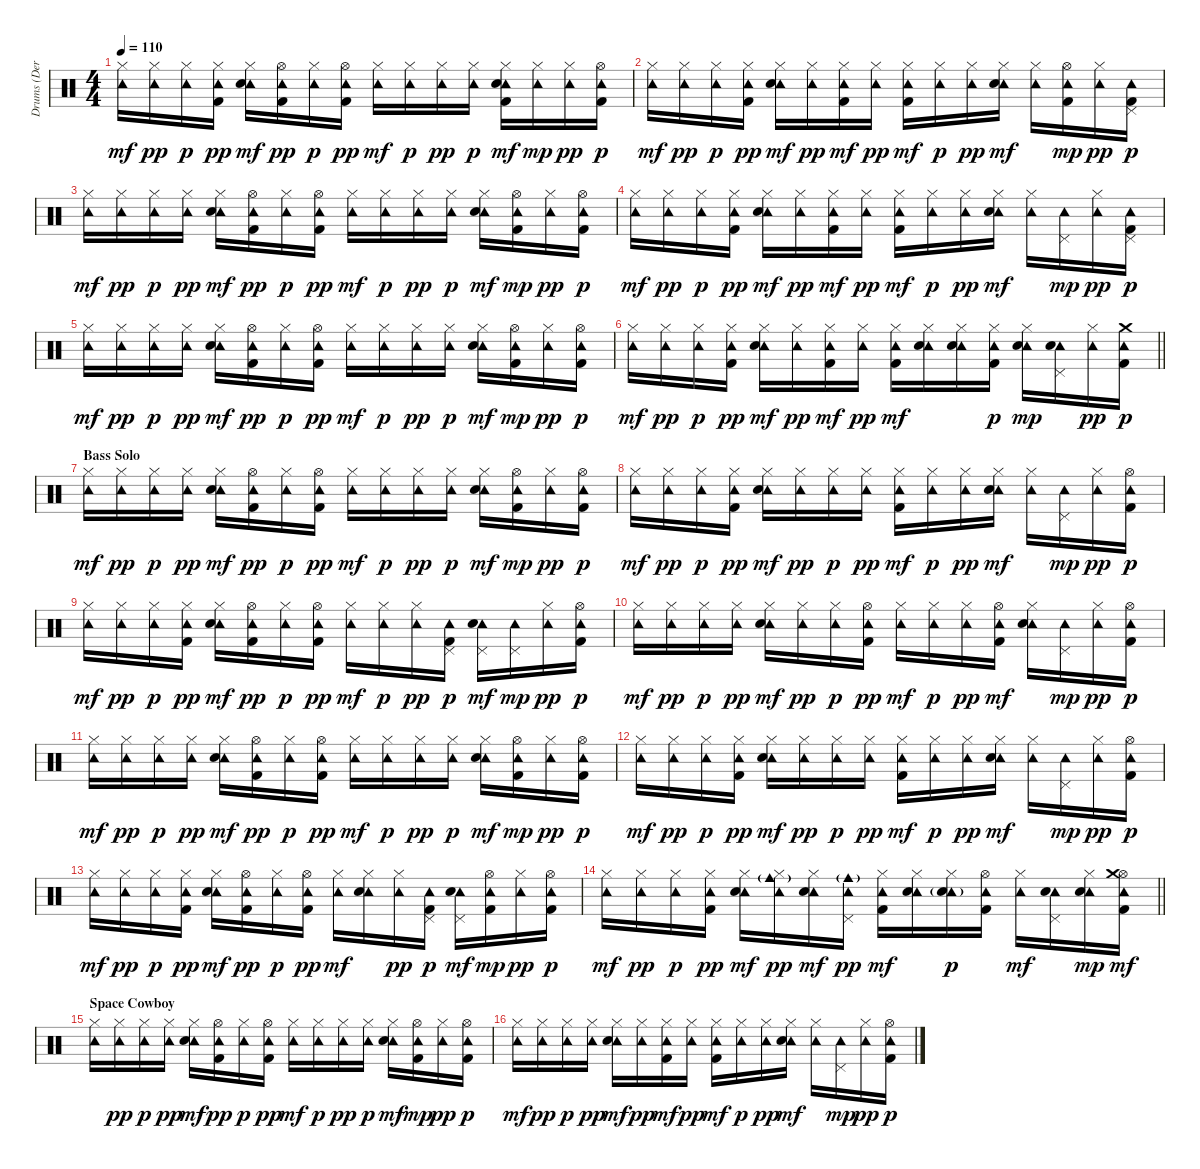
\track ("Drums (Derrick McKenzie)" "Drums (Der") {instrument percussion}
\staff {score}
\articulation defaults
\ts (4 4)
\tempo 110
\clef neutral
\ks c
("Hi-Hat (closed)" "Tambourine (hit)").16{dy mf} ("Hi-Hat (closed)" "Tambourine (hit)").16{dy pp} ("Hi-Hat (closed)" "Tambourine (hit)").16{dy p} ("Hi-Hat (closed)" "Tambourine (hit)" "Kick (hit) 2").16{dy pp} ("Hi-Hat (closed)" "Tambourine (hit)" "Electric Snare (hit)").16{dy mf} ("Hi-Hat (open)" "Tambourine (hit)" "Kick (hit) 2").16{dy pp} ("Hi-Hat (closed)" "Tambourine (hit)").16{dy p} ("Hi-Hat (open)" "Tambourine (hit)" "Kick (hit) 2").16{dy pp} ("Hi-Hat (closed)" "Tambourine (hit)").16{dy mf} ("Hi-Hat (closed)" "Tambourine (hit)").16{dy p} ("Hi-Hat (closed)" "Tambourine (hit)").16{dy pp} ("Hi-Hat (closed)" "Tambourine (hit)").16{dy p} ("Hi-Hat (closed)" "Tambourine (hit)" "Electric Snare (hit)" "Kick (hit) 2").16{dy mf} ("Hi-Hat (closed)" "Tambourine (hit)").16{dy mp} ("Hi-Hat (closed)" "Tambourine (hit)").16{dy pp} ("Hi-Hat (open)" "Tambourine (hit)" "Kick (hit) 2").16{dy p} |
("Hi-Hat (closed)" "Tambourine (hit)").16{dy mf} ("Hi-Hat (closed)" "Tambourine (hit)").16{dy pp} ("Hi-Hat (closed)" "Tambourine (hit)").16{dy p} ("Hi-Hat (closed)" "Tambourine (hit)" "Kick (hit) 2").16{dy pp} ("Hi-Hat (closed)" "Tambourine (hit)" "Electric Snare (hit)").16{dy mf} ("Hi-Hat (closed)" "Tambourine (hit)").16{dy pp} ("Hi-Hat (closed)" "Tambourine (hit)" "Kick (hit) 2").16{dy mf} ("Hi-Hat (closed)" "Tambourine (hit)").16{dy pp} ("Hi-Hat (closed)" "Tambourine (hit)" "Kick (hit) 2").16{dy mf} ("Hi-Hat (closed)" "Tambourine (hit)").16{dy p} ("Hi-Hat (closed)" "Tambourine (hit)").16{dy pp} ("Hi-Hat (closed)" "Tambourine (hit)" "Electric Snare (hit)").16{dy mf} ("Hi-Hat (closed)" "Tambourine (hit)").16 ("Hi-Hat (open)" "Tambourine (hit)" "Kick (hit) 2").16{dy mp} ("Hi-Hat (closed)" "Tambourine (hit)").16{dy pp} ("Pedal Hi-Hat (hit)" "Tambourine (hit)" "Kick (hit) 2").16{dy p} |
("Hi-Hat (closed)" "Tambourine (hit)").16{dy mf} ("Hi-Hat (closed)" "Tambourine (hit)").16{dy pp} ("Hi-Hat (closed)" "Tambourine (hit)").16{dy p} ("Hi-Hat (closed)" "Tambourine (hit)").16{dy pp} ("Hi-Hat (closed)" "Tambourine (hit)" "Electric Snare (hit)").16{dy mf} ("Hi-Hat (open)" "Tambourine (hit)" "Kick (hit) 2").16{dy pp} ("Hi-Hat (closed)" "Tambourine (hit)").16{dy p} ("Hi-Hat (open)" "Tambourine (hit)" "Kick (hit) 2").16{dy pp} ("Hi-Hat (closed)" "Tambourine (hit)").16{dy mf} ("Hi-Hat (closed)" "Tambourine (hit)").16{dy p} ("Hi-Hat (closed)" "Tambourine (hit)").16{dy pp} ("Hi-Hat (closed)" "Tambourine (hit)").16{dy p} ("Hi-Hat (closed)" "Tambourine (hit)" "Electric Snare (hit)").16{dy mf} ("Hi-Hat (open)" "Tambourine (hit)" "Kick (hit) 2").16{dy mp} ("Hi-Hat (closed)" "Tambourine (hit)").16{dy pp} ("Hi-Hat (open)" "Tambourine (hit)" "Kick (hit) 2").16{dy p} |
("Hi-Hat (closed)" "Tambourine (hit)").16{dy mf} ("Hi-Hat (closed)" "Tambourine (hit)").16{dy pp} ("Hi-Hat (closed)" "Tambourine (hit)").16{dy p} ("Hi-Hat (closed)" "Tambourine (hit)" "Kick (hit) 2").16{dy pp} ("Hi-Hat (closed)" "Tambourine (hit)" "Electric Snare (hit)").16{dy mf} ("Hi-Hat (closed)" "Tambourine (hit)").16{dy pp} ("Hi-Hat (closed)" "Tambourine (hit)" "Kick (hit) 2").16{dy mf} ("Hi-Hat (closed)" "Tambourine (hit)").16{dy pp} ("Hi-Hat (closed)" "Tambourine (hit)" "Kick (hit) 2").16{dy mf} ("Hi-Hat (closed)" "Tambourine (hit)").16{dy p} ("Hi-Hat (closed)" "Tambourine (hit)").16{dy pp} ("Hi-Hat (closed)" "Tambourine (hit)" "Electric Snare (hit)").16{dy mf} ("Hi-Hat (closed)" "Tambourine (hit)").16 ("Pedal Hi-Hat (hit)" "Tambourine (hit)").16{dy mp} ("Hi-Hat (closed)" "Tambourine (hit)").16{dy pp} ("Pedal Hi-Hat (hit)" "Tambourine (hit)" "Kick (hit) 2").16{dy p} |
("Hi-Hat (closed)" "Tambourine (hit)").16{dy mf} ("Hi-Hat (closed)" "Tambourine (hit)").16{dy pp} ("Hi-Hat (closed)" "Tambourine (hit)").16{dy p} ("Hi-Hat (closed)" "Tambourine (hit)").16{dy pp} ("Hi-Hat (closed)" "Tambourine (hit)" "Electric Snare (hit)").16{dy mf} ("Hi-Hat (open)" "Tambourine (hit)" "Kick (hit) 2").16{dy pp} ("Hi-Hat (closed)" "Tambourine (hit)").16{dy p} ("Hi-Hat (open)" "Tambourine (hit)" "Kick (hit) 2").16{dy pp} ("Hi-Hat (closed)" "Tambourine (hit)").16{dy mf} ("Hi-Hat (closed)" "Tambourine (hit)").16{dy p} ("Hi-Hat (closed)" "Tambourine (hit)").16{dy pp} ("Hi-Hat (closed)" "Tambourine (hit)").16{dy p} ("Hi-Hat (closed)" "Tambourine (hit)" "Electric Snare (hit)").16{dy mf} ("Hi-Hat (open)" "Tambourine (hit)" "Kick (hit) 2").16{dy mp} ("Hi-Hat (closed)" "Tambourine (hit)").16{dy pp} ("Hi-Hat (open)" "Tambourine (hit)" "Kick (hit) 2").16{dy p} |
\barLineRight lightlight
("Hi-Hat (closed)" "Tambourine (hit)").16{dy mf} ("Hi-Hat (closed)" "Tambourine (hit)").16{dy pp} ("Hi-Hat (closed)" "Tambourine (hit)").16{dy p} ("Hi-Hat (closed)" "Tambourine (hit)" "Kick (hit) 2").16{dy pp} ("Hi-Hat (closed)" "Tambourine (hit)" "Electric Snare (hit)").16{dy mf} ("Hi-Hat (closed)" "Tambourine (hit)").16{dy pp} ("Hi-Hat (closed)" "Tambourine (hit)" "Kick (hit) 2").16{dy mf} ("Hi-Hat (closed)" "Tambourine (hit)").16{dy pp} ("Hi-Hat (closed)" "Tambourine (hit)" "Kick (hit) 2").16{dy mf} ("Hi-Hat (closed)" "Tambourine (hit)" "Electric Snare (hit)").16 ("Hi-Hat (closed)" "Tambourine (hit)" "Electric Snare (hit)").16 ("Hi-Hat (closed)" "Tambourine (hit)" "Kick (hit) 2").16{dy p} ("Hi-Hat (closed)" "Tambourine (hit)" "Electric Snare (hit)").16{dy mp} ("Pedal Hi-Hat (hit)" "Tambourine (hit)" "Electric Snare (hit)").16 ("Hi-Hat (closed)" "Tambourine (hit)").16{dy pp} ("Crash medium (hit)" "Tambourine (hit)" "Kick (hit) 2").16{dy p} |
\section ("" "Bass Solo")
("Hi-Hat (closed)" "Tambourine (hit)").16{dy mf} ("Hi-Hat (closed)" "Tambourine (hit)").16{dy pp} ("Hi-Hat (closed)" "Tambourine (hit)").16{dy p} ("Hi-Hat (closed)" "Tambourine (hit)").16{dy pp} ("Hi-Hat (closed)" "Tambourine (hit)" "Electric Snare (hit)").16{dy mf} ("Hi-Hat (open)" "Tambourine (hit)" "Kick (hit) 2").16{dy pp} ("Hi-Hat (closed)" "Tambourine (hit)").16{dy p} ("Hi-Hat (open)" "Tambourine (hit)" "Kick (hit) 2").16{dy pp} ("Hi-Hat (closed)" "Tambourine (hit)").16{dy mf} ("Hi-Hat (closed)" "Tambourine (hit)").16{dy p} ("Hi-Hat (closed)" "Tambourine (hit)").16{dy pp} ("Hi-Hat (closed)" "Tambourine (hit)").16{dy p} ("Hi-Hat (closed)" "Tambourine (hit)" "Electric Snare (hit)").16{dy mf} ("Hi-Hat (open)" "Tambourine (hit)" "Kick (hit) 2").16{dy mp} ("Hi-Hat (closed)" "Tambourine (hit)").16{dy pp} ("Hi-Hat (open)" "Tambourine (hit)" "Kick (hit) 2").16{dy p} |
("Hi-Hat (closed)" "Tambourine (hit)").16{dy mf} ("Hi-Hat (closed)" "Tambourine (hit)").16{dy pp} ("Hi-Hat (closed)" "Tambourine (hit)").16{dy p} ("Hi-Hat (closed)" "Tambourine (hit)" "Kick (hit) 2").16{dy pp} ("Hi-Hat (closed)" "Tambourine (hit)" "Electric Snare (hit)").16{dy mf} ("Hi-Hat (closed)" "Tambourine (hit)").16{dy pp} ("Hi-Hat (closed)" "Tambourine (hit)").16{dy p} ("Hi-Hat (closed)" "Tambourine (hit)").16{dy pp} ("Hi-Hat (closed)" "Tambourine (hit)" "Kick (hit) 2").16{dy mf} ("Hi-Hat (closed)" "Tambourine (hit)").16{dy p} ("Hi-Hat (closed)" "Tambourine (hit)").16{dy pp} ("Hi-Hat (closed)" "Tambourine (hit)" "Electric Snare (hit)").16{dy mf} ("Hi-Hat (closed)" "Tambourine (hit)").16 ("Pedal Hi-Hat (hit)" "Tambourine (hit)").16{dy mp} ("Hi-Hat (closed)" "Tambourine (hit)").16{dy pp} ("Hi-Hat (open)" "Tambourine (hit)" "Kick (hit) 2").16{dy p} |
("Hi-Hat (closed)" "Tambourine (hit)").16{dy mf} ("Hi-Hat (closed)" "Tambourine (hit)").16{dy pp} ("Hi-Hat (closed)" "Tambourine (hit)").16{dy p} ("Hi-Hat (closed)" "Tambourine (hit)" "Kick (hit) 2").16{dy pp} ("Hi-Hat (closed)" "Tambourine (hit)" "Electric Snare (hit)").16{dy mf} ("Hi-Hat (open)" "Tambourine (hit)" "Kick (hit) 2").16{dy pp} ("Hi-Hat (closed)" "Tambourine (hit)").16{dy p} ("Hi-Hat (open)" "Tambourine (hit)" "Kick (hit) 2").16{dy pp} ("Hi-Hat (closed)" "Tambourine (hit)").16{dy mf} ("Hi-Hat (closed)" "Tambourine (hit)").16{dy p} ("Hi-Hat (closed)" "Tambourine (hit)").16{dy pp} ("Pedal Hi-Hat (hit)" "Tambourine (hit)" "Kick (hit) 2").16{dy p} ("Pedal Hi-Hat (hit)" "Tambourine (hit)" "Electric Snare (hit)").16{dy mf} ("Pedal Hi-Hat (hit)" "Tambourine (hit)").16{dy mp} ("Hi-Hat (closed)" "Tambourine (hit)").16{dy pp} ("Hi-Hat (open)" "Tambourine (hit)" "Kick (hit) 2").16{dy p} |
("Hi-Hat (closed)" "Tambourine (hit)").16{dy mf} ("Hi-Hat (closed)" "Tambourine (hit)").16{dy pp} ("Hi-Hat (closed)" "Tambourine (hit)").16{dy p} ("Hi-Hat (closed)" "Tambourine (hit)").16{dy pp} ("Hi-Hat (closed)" "Tambourine (hit)" "Electric Snare (hit)").16{dy mf} ("Hi-Hat (closed)" "Tambourine (hit)").16{dy pp} ("Hi-Hat (closed)" "Tambourine (hit)").16{dy p} ("Hi-Hat (open)" "Tambourine (hit)" "Kick (hit) 2").16{dy pp} ("Hi-Hat (closed)" "Tambourine (hit)").16{dy mf} ("Hi-Hat (closed)" "Tambourine (hit)").16{dy p} ("Hi-Hat (closed)" "Tambourine (hit)").16{dy pp} ("Hi-Hat (open)" "Tambourine (hit)" "Kick (hit) 2").16{dy mf} ("Hi-Hat (closed)" "Tambourine (hit)" "Electric Snare (hit)").16 ("Pedal Hi-Hat (hit)" "Tambourine (hit)").16{dy mp} ("Hi-Hat (closed)" "Tambourine (hit)").16{dy pp} ("Hi-Hat (open)" "Tambourine (hit)" "Kick (hit) 2").16{dy p} |
("Hi-Hat (closed)" "Tambourine (hit)").16{dy mf} ("Hi-Hat (closed)" "Tambourine (hit)").16{dy pp} ("Hi-Hat (closed)" "Tambourine (hit)").16{dy p} ("Hi-Hat (closed)" "Tambourine (hit)").16{dy pp} ("Hi-Hat (closed)" "Tambourine (hit)" "Electric Snare (hit)").16{dy mf} ("Hi-Hat (open)" "Tambourine (hit)" "Kick (hit) 2").16{dy pp} ("Hi-Hat (closed)" "Tambourine (hit)").16{dy p} ("Hi-Hat (open)" "Tambourine (hit)" "Kick (hit) 2").16{dy pp} ("Hi-Hat (closed)" "Tambourine (hit)").16{dy mf} ("Hi-Hat (closed)" "Tambourine (hit)").16{dy p} ("Hi-Hat (closed)" "Tambourine (hit)").16{dy pp} ("Hi-Hat (closed)" "Tambourine (hit)").16{dy p} ("Hi-Hat (closed)" "Tambourine (hit)" "Electric Snare (hit)").16{dy mf} ("Hi-Hat (open)" "Tambourine (hit)" "Kick (hit) 2").16{dy mp} ("Hi-Hat (closed)" "Tambourine (hit)").16{dy pp} ("Hi-Hat (open)" "Tambourine (hit)" "Kick (hit) 2").16{dy p} |
("Hi-Hat (closed)" "Tambourine (hit)").16{dy mf} ("Hi-Hat (closed)" "Tambourine (hit)").16{dy pp} ("Hi-Hat (closed)" "Tambourine (hit)").16{dy p} ("Hi-Hat (closed)" "Tambourine (hit)" "Kick (hit) 2").16{dy pp} ("Hi-Hat (closed)" "Tambourine (hit)" "Electric Snare (hit)").16{dy mf} ("Hi-Hat (closed)" "Tambourine (hit)").16{dy pp} ("Hi-Hat (closed)" "Tambourine (hit)").16{dy p} ("Hi-Hat (closed)" "Tambourine (hit)").16{dy pp} ("Hi-Hat (closed)" "Tambourine (hit)" "Kick (hit) 2").16{dy mf} ("Hi-Hat (closed)" "Tambourine (hit)").16{dy p} ("Hi-Hat (closed)" "Tambourine (hit)").16{dy pp} ("Hi-Hat (closed)" "Tambourine (hit)" "Electric Snare (hit)").16{dy mf} ("Hi-Hat (closed)" "Tambourine (hit)").16 ("Pedal Hi-Hat (hit)" "Tambourine (hit)").16{dy mp} ("Hi-Hat (closed)" "Tambourine (hit)").16{dy pp} ("Hi-Hat (open)" "Tambourine (hit)" "Kick (hit) 2").16{dy p} |
("Hi-Hat (closed)" "Tambourine (hit)").16{dy mf} ("Hi-Hat (closed)" "Tambourine (hit)").16{dy pp} ("Hi-Hat (closed)" "Tambourine (hit)").16{dy p} ("Hi-Hat (closed)" "Tambourine (hit)" "Kick (hit) 2").16{dy pp} ("Hi-Hat (closed)" "Tambourine (hit)" "Electric Snare (hit)").16{dy mf} ("Hi-Hat (open)" "Tambourine (hit)" "Kick (hit) 2").16{dy pp} ("Hi-Hat (closed)" "Tambourine (hit)").16{dy p} ("Hi-Hat (open)" "Tambourine (hit)" "Kick (hit) 2").16{dy pp} ("Hi-Hat (closed)" "Tambourine (hit)").16{dy mf} ("Hi-Hat (closed)" "Tambourine (hit)" "Electric Snare (hit)").16 ("Hi-Hat (closed)" "Tambourine (hit)").16{dy pp} ("Pedal Hi-Hat (hit)" "Tambourine (hit)" "Kick (hit) 2").16{dy p} ("Pedal Hi-Hat (hit)" "Tambourine (hit)" "Electric Snare (hit)").16{dy mf} ("Hi-Hat (open)" "Tambourine (hit)" "Kick (hit) 2").16{dy mp} ("Hi-Hat (closed)" "Tambourine (hit)").16{dy pp} ("Hi-Hat (open)" "Tambourine (hit)" "Kick (hit) 2").16{dy p} |
\barLineRight lightlight
("Hi-Hat (closed)" "Tambourine (hit)").16{dy mf} ("Hi-Hat (closed)" "Tambourine (hit)").16{dy pp} ("Hi-Hat (closed)" "Tambourine (hit)").16{dy p} ("Hi-Hat (closed)" "Tambourine (hit)" "Kick (hit) 2").16{dy pp} ("Hi-Hat (closed)" "Tambourine (hit)" "Electric Snare (hit)").16{dy mf} ("Hi-Hat (closed)" "Tambourine (hit)" "Cowbell medium (hit)"{g}).16{dy pp} ("Hi-Hat (closed)" "Tambourine (hit)" "Electric Snare (hit)").16{dy mf} ("Pedal Hi-Hat (hit)" "Tambourine (hit)" "Cowbell medium (hit)"{g}).16{dy pp} ("Hi-Hat (closed)" "Tambourine (hit)" "Kick (hit) 2").16{dy mf} ("Hi-Hat (closed)" "Tambourine (hit)" "Electric Snare (hit)").16 ("Hi-Hat (closed)" "Tambourine (hit)" "Electric Snare (hit)"{g}).16{dy p} ("Hi-Hat (open)" "Tambourine (hit)" "Kick (hit) 2").16 ("Hi-Hat (closed)" "Tambourine (hit)").16{dy mf} ("Pedal Hi-Hat (hit)" "Tambourine (hit)" "Electric Snare (hit)").16 ("Hi-Hat (closed)" "Tambourine (hit)" "Electric Snare (hit)").16{dy mp} ("Hi-Hat (open)" "Tambourine (hit)" "Crash medium (hit)" "Kick (hit) 2").16{dy mf} |
\section ("" "Space Cowboy")
("Hi-Hat (closed)" "Tambourine (hit)").16 ("Hi-Hat (closed)" "Tambourine (hit)").16{dy pp} ("Hi-Hat (closed)" "Tambourine (hit)").16{dy p} ("Hi-Hat (closed)" "Tambourine (hit)").16{dy pp} ("Hi-Hat (closed)" "Tambourine (hit)" "Electric Snare (hit)").16{dy mf} ("Hi-Hat (open)" "Tambourine (hit)" "Kick (hit) 2").16{dy pp} ("Hi-Hat (closed)" "Tambourine (hit)").16{dy p} ("Hi-Hat (open)" "Tambourine (hit)" "Kick (hit) 2").16{dy pp} ("Hi-Hat (closed)" "Tambourine (hit)").16{dy mf} ("Hi-Hat (closed)" "Tambourine (hit)").16{dy p} ("Hi-Hat (closed)" "Tambourine (hit)").16{dy pp} ("Hi-Hat (closed)" "Tambourine (hit)").16{dy p} ("Hi-Hat (closed)" "Tambourine (hit)" "Electric Snare (hit)").16{dy mf} ("Hi-Hat (open)" "Tambourine (hit)" "Kick (hit) 2").16{dy mp} ("Hi-Hat (closed)" "Tambourine (hit)").16{dy pp} ("Hi-Hat (open)" "Tambourine (hit)" "Kick (hit) 2").16{dy p} |
("Hi-Hat (closed)" "Tambourine (hit)").16{dy mf} ("Hi-Hat (closed)" "Tambourine (hit)").16{dy pp} ("Hi-Hat (closed)" "Tambourine (hit)").16{dy p} ("Hi-Hat (closed)" "Tambourine (hit)").16{dy pp} ("Hi-Hat (closed)" "Tambourine (hit)" "Electric Snare (hit)").16{dy mf} ("Hi-Hat (closed)" "Tambourine (hit)").16{dy pp} ("Hi-Hat (closed)" "Tambourine (hit)" "Kick (hit) 2").16{dy mf} ("Hi-Hat (closed)" "Tambourine (hit)").16{dy pp} ("Hi-Hat (closed)" "Tambourine (hit)" "Kick (hit) 2").16{dy mf} ("Hi-Hat (closed)" "Tambourine (hit)").16{dy p} ("Hi-Hat (closed)" "Tambourine (hit)").16{dy pp} ("Hi-Hat (closed)" "Tambourine (hit)" "Electric Snare (hit)").16{dy mf} ("Hi-Hat (closed)" "Tambourine (hit)").16 ("Pedal Hi-Hat (hit)" "Tambourine (hit)").16{dy mp} ("Hi-Hat (closed)" "Tambourine (hit)").16{dy pp} ("Hi-Hat (open)" "Tambourine (hit)" "Kick (hit) 2").16{dy p}
